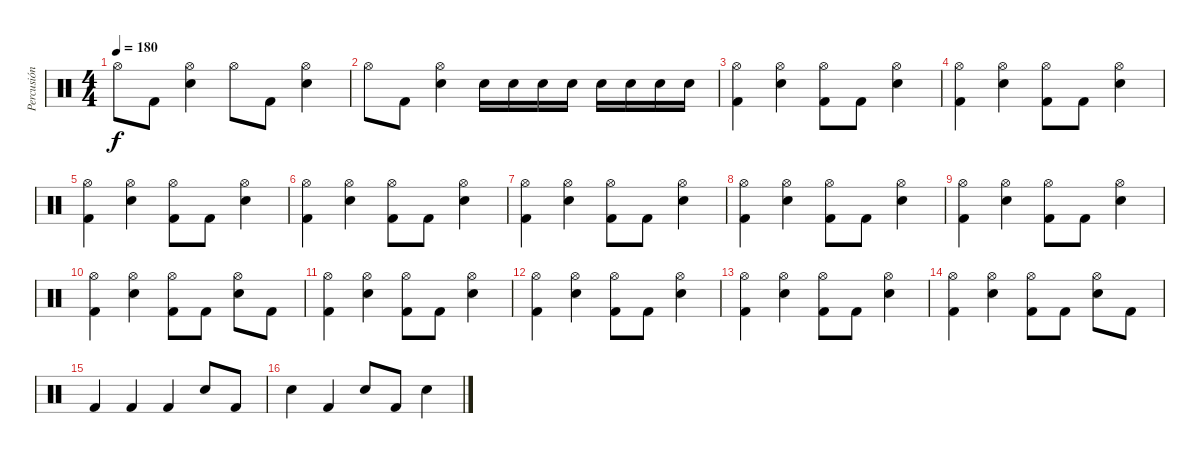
\track ("Percusión" "Percusión") {instrument percussion}
\staff {score}
\articulation defaults
\ts (4 4)
\tempo 180
\clef neutral
\ks c "Hi-Hat (open)".8{dy f} "Kick (hit) 2".8
("Electric Snare (hit)" "Hi-Hat (open)").4 "Hi-Hat (open)".8 "Kick (hit) 2".8 ("Electric Snare (hit)" "Hi-Hat (open)").4 |
"Hi-Hat (open)".8 "Kick (hit) 2".8 ("Electric Snare (hit)" "Hi-Hat (open)").4 "Electric Snare (hit)".16 "Electric Snare (hit)".16 "Electric Snare (hit)".16 "Electric Snare (hit)".16 "Electric Snare (hit)".16 "Electric Snare (hit)".16 "Electric Snare (hit)".16 "Electric Snare (hit)".16 |
("Kick (hit) 2" "Hi-Hat (open)").4 ("Electric Snare (hit)" "Hi-Hat (open)").4 ("Kick (hit) 2" "Hi-Hat (open)").8 "Kick (hit) 2".8 ("Electric Snare (hit)" "Hi-Hat (open)").4 |
("Kick (hit) 2" "Hi-Hat (open)").4 ("Electric Snare (hit)" "Hi-Hat (open)").4 ("Kick (hit) 2" "Hi-Hat (open)").8 "Kick (hit) 2".8 ("Electric Snare (hit)" "Hi-Hat (open)").4 |
("Kick (hit) 2" "Hi-Hat (open)").4 ("Electric Snare (hit)" "Hi-Hat (open)").4 ("Kick (hit) 2" "Hi-Hat (open)").8 "Kick (hit) 2".8 ("Electric Snare (hit)" "Hi-Hat (open)").4 |
("Kick (hit) 2" "Hi-Hat (open)").4 ("Electric Snare (hit)" "Hi-Hat (open)").4 ("Kick (hit) 2" "Hi-Hat (open)").8 "Kick (hit) 2".8 ("Electric Snare (hit)" "Hi-Hat (open)").4 |
("Kick (hit) 2" "Hi-Hat (open)").4 ("Electric Snare (hit)" "Hi-Hat (open)").4 ("Kick (hit) 2" "Hi-Hat (open)").8 "Kick (hit) 2".8 ("Electric Snare (hit)" "Hi-Hat (open)").4 |
("Kick (hit) 2" "Hi-Hat (open)").4 ("Electric Snare (hit)" "Hi-Hat (open)").4 ("Kick (hit) 2" "Hi-Hat (open)").8 "Kick (hit) 2".8 ("Electric Snare (hit)" "Hi-Hat (open)").4 |
("Kick (hit) 2" "Hi-Hat (open)").4 ("Electric Snare (hit)" "Hi-Hat (open)").4 ("Kick (hit) 2" "Hi-Hat (open)").8 "Kick (hit) 2".8 ("Electric Snare (hit)" "Hi-Hat (open)").4 |
("Kick (hit) 2" "Hi-Hat (open)").4 ("Electric Snare (hit)" "Hi-Hat (open)").4 ("Kick (hit) 2" "Hi-Hat (open)").8 "Kick (hit) 2".8 ("Electric Snare (hit)" "Hi-Hat (open)").8 "Kick (hit) 2".8 |
("Kick (hit) 2" "Hi-Hat (open)").4 ("Electric Snare (hit)" "Hi-Hat (open)").4 ("Kick (hit) 2" "Hi-Hat (open)").8 "Kick (hit) 2".8 ("Electric Snare (hit)" "Hi-Hat (open)").4 |
("Kick (hit) 2" "Hi-Hat (open)").4 ("Electric Snare (hit)" "Hi-Hat (open)").4 ("Kick (hit) 2" "Hi-Hat (open)").8 "Kick (hit) 2".8 ("Electric Snare (hit)" "Hi-Hat (open)").4 |
("Kick (hit) 2" "Hi-Hat (open)").4 ("Electric Snare (hit)" "Hi-Hat (open)").4 ("Kick (hit) 2" "Hi-Hat (open)").8 "Kick (hit) 2".8 ("Electric Snare (hit)" "Hi-Hat (open)").4 |
("Kick (hit) 2" "Hi-Hat (open)").4 ("Electric Snare (hit)" "Hi-Hat (open)").4 ("Kick (hit) 2" "Hi-Hat (open)").8 "Kick (hit) 2".8 ("Electric Snare (hit)" "Hi-Hat (open)").8 "Kick (hit) 2".8 |
"Kick (hit) 2".4 "Kick (hit) 2".4 "Kick (hit) 2".4 "Electric Snare (hit)".8 "Kick (hit) 2".8 |
"Electric Snare (hit)".4 "Kick (hit) 2".4 "Electric Snare (hit)".8 "Kick (hit) 2".8 "Electric Snare (hit)".4
